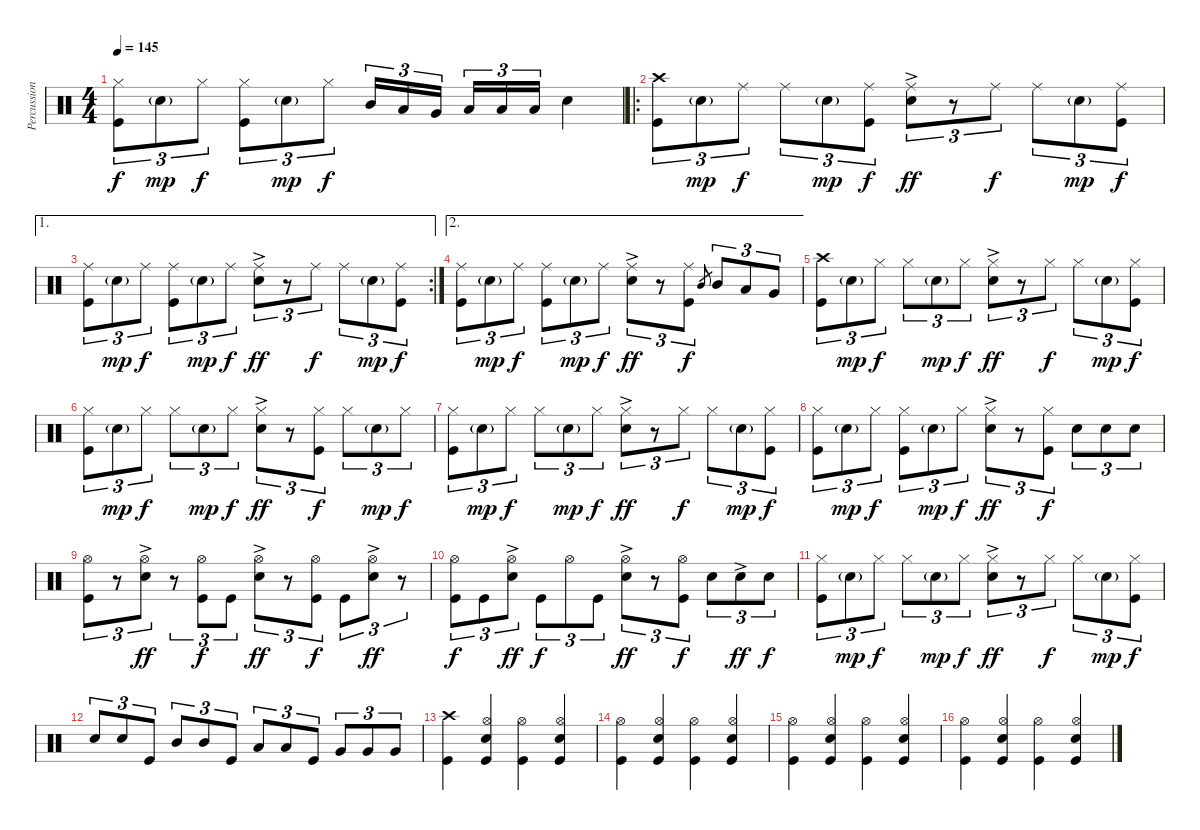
\track ("Percussion" "Percussion") {instrument percussion}
\staff {score}
\articulation defaults
\ts (4 4)
\tempo 145
\clef neutral
\ks c
("Hi-Hat (closed)" "Kick (hit)").8{tu (3 2) dy f} "Electric Snare (hit)"{g}.8{tu (3 2) dy mp} "Hi-Hat (closed)".8{tu (3 2) dy f} ("Hi-Hat (closed)" "Kick (hit)").8{tu (3 2)} "Electric Snare (hit)"{g}.8{tu (3 2) dy mp} "Hi-Hat (closed)".8{tu (3 2) dy f} "Mid Tom (hit)".16{tu (3 2)} "Low Tom (hit)".16{tu (3 2)} "Very Low Tom (hit)".16{tu (3 2) beam splitsecondary} "Low Floor Tom (hit)".16{tu (3 2)} "Low Floor Tom (hit)".16{tu (3 2)} "Low Floor Tom (hit)".16{tu (3 2)} "Electric Snare (hit)".4 |
\ro
("Crash high (hit)" "Kick (hit)").8{tu (3 2)} "Electric Snare (hit)"{g}.8{tu (3 2) dy mp} "Ride (middle)".8{tu (3 2) dy f} "Ride (middle)".8{tu (3 2)} "Electric Snare (hit)"{g}.8{tu (3 2) dy mp} ("Ride (middle)" "Kick (hit)").8{tu (3 2) dy f} ("Ride (middle)" "Electric Snare (hit)"{ac}).8{tu (3 2) dy ff} r.8{tu (3 2)} "Ride (middle)".8{tu (3 2) dy f} "Ride (middle)".8{tu (3 2)} "Electric Snare (hit)"{g}.8{tu (3 2) dy mp} ("Ride (middle)" "Kick (hit)").8{tu (3 2) dy f} |
\ae 1
\rc 2
("Ride (middle)" "Kick (hit)").8{tu (3 2)} "Electric Snare (hit)"{g}.8{tu (3 2) dy mp} "Ride (middle)".8{tu (3 2) dy f} ("Ride (middle)" "Kick (hit)").8{tu (3 2)} "Electric Snare (hit)"{g}.8{tu (3 2) dy mp} "Ride (middle)".8{tu (3 2) dy f} ("Ride (middle)" "Electric Snare (hit)"{ac}).8{tu (3 2) dy ff} r.8{tu (3 2)} "Ride (middle)".8{tu (3 2) dy f} "Ride (middle)".8{tu (3 2)} "Electric Snare (hit)"{g}.8{tu (3 2) dy mp} ("Ride (middle)" "Kick (hit)").8{tu (3 2) dy f} |
\ae 2
("Ride (middle)" "Kick (hit)").8{tu (3 2)} "Electric Snare (hit)"{g}.8{tu (3 2) dy mp} "Ride (middle)".8{tu (3 2) dy f} ("Ride (middle)" "Kick (hit)").8{tu (3 2)} "Electric Snare (hit)"{g}.8{tu (3 2) dy mp} "Ride (middle)".8{tu (3 2) dy f} ("Ride (middle)" "Electric Snare (hit)"{ac}).8{tu (3 2) dy ff} r.8{tu (3 2)} ("Ride (middle)" "Kick (hit)").8{tu (3 2) dy f} "Mid Tom (hit)".8{gr} "Mid Tom (hit)".8{tu (3 2)} "Low Tom (hit)".8{tu (3 2)} "Very Low Tom (hit)".8{tu (3 2)} |
("Crash high (hit)" "Kick (hit)").8{tu (3 2)} "Electric Snare (hit)"{g}.8{tu (3 2) dy mp} "Hi-Hat (closed)".8{tu (3 2) dy f} "Hi-Hat (closed)".8{tu (3 2)} "Electric Snare (hit)"{g}.8{tu (3 2) dy mp} "Hi-Hat (closed)".8{tu (3 2) dy f} ("Hi-Hat (closed)" "Electric Snare (hit)"{ac}).8{tu (3 2) dy ff} r.8{tu (3 2)} "Hi-Hat (closed)".8{tu (3 2) dy f} "Hi-Hat (closed)".8{tu (3 2)} "Electric Snare (hit)"{g}.8{tu (3 2) dy mp} ("Hi-Hat (closed)" "Kick (hit)").8{tu (3 2) dy f} |
("Hi-Hat (closed)" "Kick (hit)").8{tu (3 2)} "Electric Snare (hit)"{g}.8{tu (3 2) dy mp} "Hi-Hat (closed)".8{tu (3 2) dy f} "Hi-Hat (closed)".8{tu (3 2)} "Electric Snare (hit)"{g}.8{tu (3 2) dy mp} "Hi-Hat (closed)".8{tu (3 2) dy f} ("Hi-Hat (closed)" "Electric Snare (hit)"{ac}).8{tu (3 2) dy ff} r.8{tu (3 2)} ("Hi-Hat (closed)" "Kick (hit)").8{tu (3 2) dy f} "Hi-Hat (closed)".8{tu (3 2)} "Electric Snare (hit)"{g}.8{tu (3 2) dy mp} "Hi-Hat (closed)".8{tu (3 2) dy f} |
("Hi-Hat (closed)" "Kick (hit)").8{tu (3 2)} "Electric Snare (hit)"{g}.8{tu (3 2) dy mp} "Hi-Hat (closed)".8{tu (3 2) dy f} "Hi-Hat (closed)".8{tu (3 2)} "Electric Snare (hit)"{g}.8{tu (3 2) dy mp} "Hi-Hat (closed)".8{tu (3 2) dy f} ("Hi-Hat (closed)" "Electric Snare (hit)"{ac}).8{tu (3 2) dy ff} r.8{tu (3 2)} "Hi-Hat (closed)".8{tu (3 2) dy f} "Hi-Hat (closed)".8{tu (3 2)} "Electric Snare (hit)"{g}.8{tu (3 2) dy mp} ("Hi-Hat (closed)" "Kick (hit)").8{tu (3 2) dy f} |
("Hi-Hat (closed)" "Kick (hit)").8{tu (3 2)} "Electric Snare (hit)"{g}.8{tu (3 2) dy mp} "Hi-Hat (closed)".8{tu (3 2) dy f} ("Hi-Hat (closed)" "Kick (hit)").8{tu (3 2)} "Electric Snare (hit)"{g}.8{tu (3 2) dy mp} "Hi-Hat (closed)".8{tu (3 2) dy f} ("Hi-Hat (closed)" "Electric Snare (hit)"{ac}).8{tu (3 2) dy ff} r.8{tu (3 2)} ("Hi-Hat (closed)" "Kick (hit)").8{tu (3 2) dy f} "Electric Snare (hit)".8{tu (3 2)} "Electric Snare (hit)".8{tu (3 2)} "Electric Snare (hit)".8{tu (3 2)} |
("Hi-Hat (open)" "Kick (hit)").8{tu (3 2)} r.8{tu (3 2)} ("Hi-Hat (open)" "Electric Snare (hit)"{ac}).8{tu (3 2) dy ff} r.8{tu (3 2)} ("Hi-Hat (open)" "Kick (hit)").8{tu (3 2) dy f} "Kick (hit)".8{tu (3 2)} ("Hi-Hat (open)" "Electric Snare (hit)"{ac}).8{tu (3 2) dy ff} r.8{tu (3 2)} ("Hi-Hat (open)" "Kick (hit)").8{tu (3 2) dy f} "Kick (hit)".8{tu (3 2)} ("Hi-Hat (open)" "Electric Snare (hit)"{ac}).8{tu (3 2) dy ff} r.8{tu (3 2)} |
("Hi-Hat (open)" "Kick (hit)").8{tu (3 2) dy f} "Kick (hit)".8{tu (3 2)} ("Hi-Hat (open)" "Electric Snare (hit)"{ac}).8{tu (3 2) dy ff} "Kick (hit)".8{tu (3 2) dy f} "Hi-Hat (open)".8{tu (3 2)} "Kick (hit)".8{tu (3 2)} ("Hi-Hat (open)" "Electric Snare (hit)"{ac}).8{tu (3 2) dy ff} r.8{tu (3 2)} ("Hi-Hat (open)" "Kick (hit)").8{tu (3 2) dy f} "Electric Snare (hit)".8{tu (3 2)} "Electric Snare (hit)"{ac}.8{tu (3 2) dy ff} "Electric Snare (hit)".8{tu (3 2) dy f} |
("Hi-Hat (closed)" "Kick (hit)").8{tu (3 2)} "Electric Snare (hit)"{g}.8{tu (3 2) dy mp} "Hi-Hat (closed)".8{tu (3 2) dy f} "Hi-Hat (closed)".8{tu (3 2)} "Electric Snare (hit)"{g}.8{tu (3 2) dy mp} "Hi-Hat (closed)".8{tu (3 2) dy f} ("Hi-Hat (closed)" "Electric Snare (hit)"{ac}).8{tu (3 2) dy ff} r.8{tu (3 2)} "Hi-Hat (closed)".8{tu (3 2) dy f} "Hi-Hat (closed)".8{tu (3 2)} "Electric Snare (hit)"{g}.8{tu (3 2) dy mp} ("Hi-Hat (closed)" "Kick (hit)").8{tu (3 2) dy f} |
"Electric Snare (hit)".8{tu (3 2)} "Electric Snare (hit)".8{tu (3 2)} "Kick (hit)".8{tu (3 2)} "Mid Tom (hit)".8{tu (3 2)} "Mid Tom (hit)".8{tu (3 2)} "Kick (hit)".8{tu (3 2)} "Low Tom (hit)".8{tu (3 2)} "Low Tom (hit)".8{tu (3 2)} "Kick (hit)".8{tu (3 2)} "Very Low Tom (hit)".8{tu (3 2)} "Very Low Tom (hit)".8{tu (3 2)} "Very Low Tom (hit)".8{tu (3 2)} |
("Crash high (hit)" "Kick (hit)").4 ("Hi-Hat (open)" "Snare (hit) 2" "Kick (hit)").4 ("Hi-Hat (open)" "Kick (hit)").4 ("Hi-Hat (open)" "Snare (hit) 2" "Kick (hit)").4 |
("Hi-Hat (open)" "Kick (hit)").4 ("Hi-Hat (open)" "Snare (hit) 2" "Kick (hit)").4 ("Hi-Hat (open)" "Kick (hit)").4 ("Hi-Hat (open)" "Snare (hit) 2" "Kick (hit)").4 |
("Hi-Hat (open)" "Kick (hit)").4 ("Hi-Hat (open)" "Snare (hit) 2" "Kick (hit)").4 ("Hi-Hat (open)" "Kick (hit)").4 ("Hi-Hat (open)" "Snare (hit) 2" "Kick (hit)").4 |
("Hi-Hat (open)" "Kick (hit)").4 ("Hi-Hat (open)" "Snare (hit) 2" "Kick (hit)").4 ("Hi-Hat (open)" "Kick (hit)").4 ("Hi-Hat (open)" "Snare (hit) 2" "Kick (hit)").4
